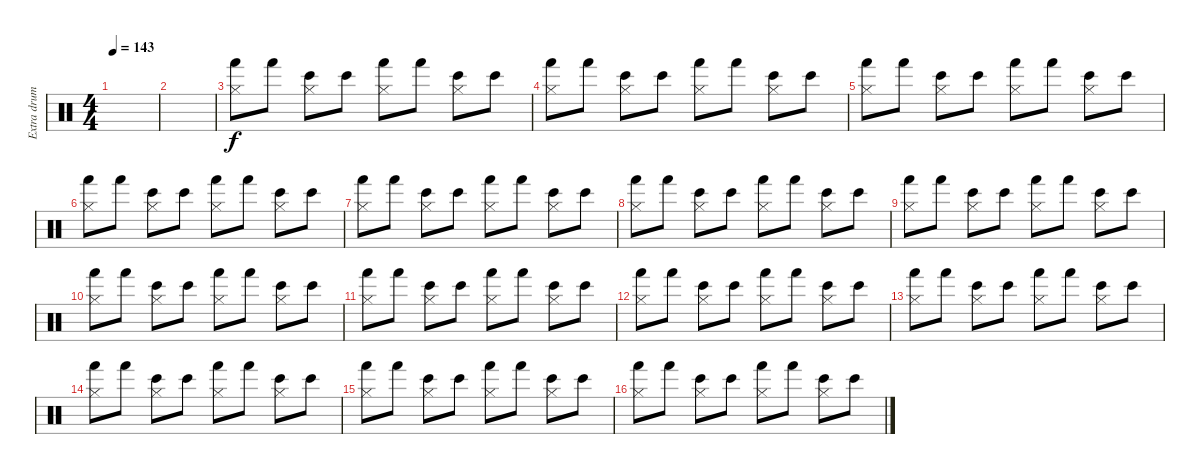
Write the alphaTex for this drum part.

\track ("Extra drums" "Extra drum") {instrument percussion}
\staff {score}
\articulation defaults
\ts (4 4)
\tempo 143
\clef neutral
\ks c
|
|
("Hi-Hat (closed)" "Hand (hit)").8 "Hand (hit)".8 ("Hi-Hat (closed)" "Bongo High (hit)").8 "Bongo High (hit)".8 ("Hi-Hat (closed)" "Hand (hit)").8 "Hand (hit)".8 ("Hi-Hat (closed)" "Bongo High (hit)").8 "Bongo High (hit)".8 |
("Hi-Hat (closed)" "Hand (hit)").8 "Hand (hit)".8 ("Hi-Hat (closed)" "Bongo High (hit)").8 "Bongo High (hit)".8 ("Hi-Hat (closed)" "Hand (hit)").8 "Hand (hit)".8 ("Hi-Hat (closed)" "Bongo High (hit)").8 "Bongo High (hit)".8 |
("Hi-Hat (closed)" "Hand (hit)").8 "Hand (hit)".8 ("Hi-Hat (closed)" "Bongo High (hit)").8 "Bongo High (hit)".8 ("Hi-Hat (closed)" "Hand (hit)").8 "Hand (hit)".8 ("Hi-Hat (closed)" "Bongo High (hit)").8 "Bongo High (hit)".8 |
("Hi-Hat (closed)" "Hand (hit)").8 "Hand (hit)".8 ("Hi-Hat (closed)" "Bongo High (hit)").8 "Bongo High (hit)".8 ("Hi-Hat (closed)" "Hand (hit)").8 "Hand (hit)".8 ("Hi-Hat (closed)" "Bongo High (hit)").8 "Bongo High (hit)".8 |
("Hi-Hat (closed)" "Hand (hit)").8 "Hand (hit)".8 ("Hi-Hat (closed)" "Bongo High (hit)").8 "Bongo High (hit)".8 ("Hi-Hat (closed)" "Hand (hit)").8 "Hand (hit)".8 ("Hi-Hat (closed)" "Bongo High (hit)").8 "Bongo High (hit)".8 |
("Hi-Hat (closed)" "Hand (hit)").8 "Hand (hit)".8 ("Hi-Hat (closed)" "Bongo High (hit)").8 "Bongo High (hit)".8 ("Hi-Hat (closed)" "Hand (hit)").8 "Hand (hit)".8 ("Hi-Hat (closed)" "Bongo High (hit)").8 "Bongo High (hit)".8 |
("Hi-Hat (closed)" "Hand (hit)").8 "Hand (hit)".8 ("Hi-Hat (closed)" "Bongo High (hit)").8 "Bongo High (hit)".8 ("Hi-Hat (closed)" "Hand (hit)").8 "Hand (hit)".8 ("Hi-Hat (closed)" "Bongo High (hit)").8 "Bongo High (hit)".8 |
("Hi-Hat (closed)" "Hand (hit)").8 "Hand (hit)".8 ("Hi-Hat (closed)" "Bongo High (hit)").8 "Bongo High (hit)".8 ("Hi-Hat (closed)" "Hand (hit)").8 "Hand (hit)".8 ("Hi-Hat (closed)" "Bongo High (hit)").8 "Bongo High (hit)".8 |
("Hi-Hat (closed)" "Hand (hit)").8 "Hand (hit)".8 ("Hi-Hat (closed)" "Bongo High (hit)").8 "Bongo High (hit)".8 ("Hi-Hat (closed)" "Hand (hit)").8 "Hand (hit)".8 ("Hi-Hat (closed)" "Bongo High (hit)").8 "Bongo High (hit)".8 |
("Hi-Hat (closed)" "Hand (hit)").8 "Hand (hit)".8 ("Hi-Hat (closed)" "Bongo High (hit)").8 "Bongo High (hit)".8 ("Hi-Hat (closed)" "Hand (hit)").8 "Hand (hit)".8 ("Hi-Hat (closed)" "Bongo High (hit)").8 "Bongo High (hit)".8 |
("Hi-Hat (closed)" "Hand (hit)").8 "Hand (hit)".8 ("Hi-Hat (closed)" "Bongo High (hit)").8 "Bongo High (hit)".8 ("Hi-Hat (closed)" "Hand (hit)").8 "Hand (hit)".8 ("Hi-Hat (closed)" "Bongo High (hit)").8 "Bongo High (hit)".8 |
("Hi-Hat (closed)" "Hand (hit)").8 "Hand (hit)".8 ("Hi-Hat (closed)" "Bongo High (hit)").8 "Bongo High (hit)".8 ("Hi-Hat (closed)" "Hand (hit)").8 "Hand (hit)".8 ("Hi-Hat (closed)" "Bongo High (hit)").8 "Bongo High (hit)".8 |
("Hi-Hat (closed)" "Hand (hit)").8 "Hand (hit)".8 ("Hi-Hat (closed)" "Bongo High (hit)").8 "Bongo High (hit)".8 ("Hi-Hat (closed)" "Hand (hit)").8 "Hand (hit)".8 ("Hi-Hat (closed)" "Bongo High (hit)").8 "Bongo High (hit)".8 |
("Hi-Hat (closed)" "Hand (hit)").8 "Hand (hit)".8 ("Hi-Hat (closed)" "Bongo High (hit)").8 "Bongo High (hit)".8 ("Hi-Hat (closed)" "Hand (hit)").8 "Hand (hit)".8 ("Hi-Hat (closed)" "Bongo High (hit)").8 "Bongo High (hit)".8
